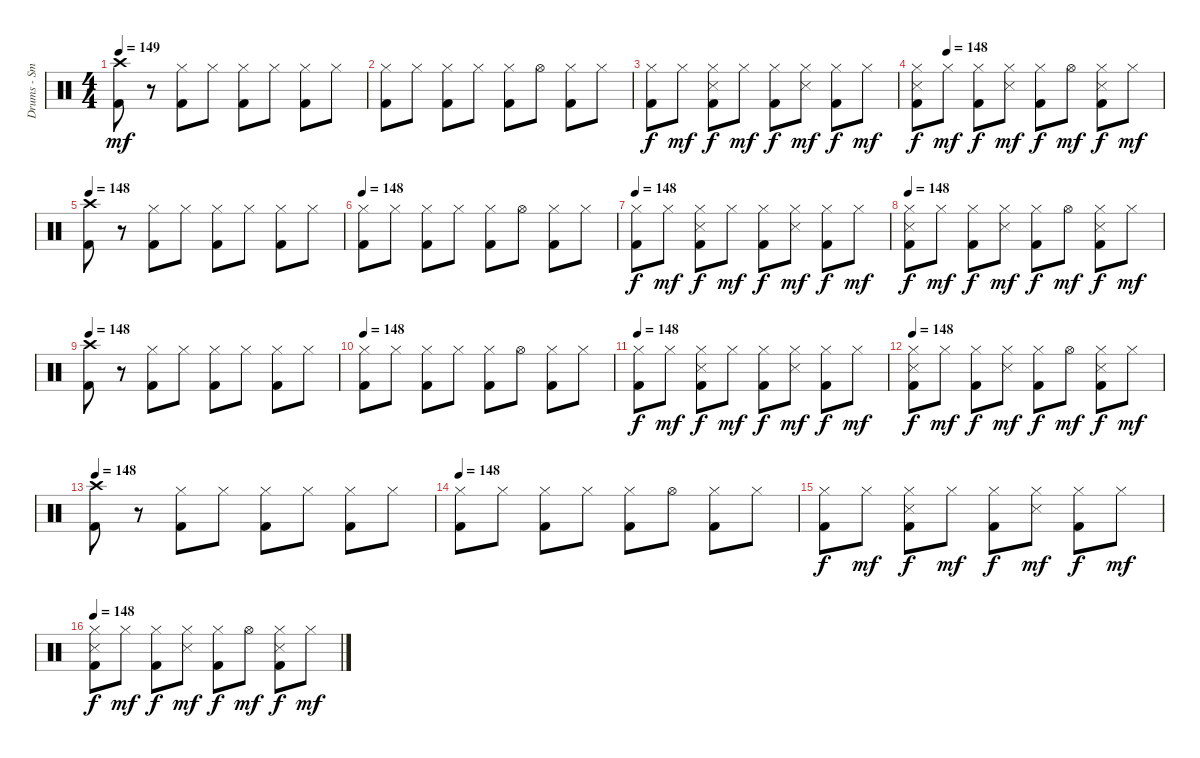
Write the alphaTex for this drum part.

\track ("Drums - Smelly" "Drums - Sm") {instrument percussion}
\staff {score}
\articulation defaults
\ts (4 4)
\tempo 149
\clef neutral
\ks c
("Crash high (hit)" "Kick (hit) 2").8{dy mf} r.8 ("Hi-Hat (closed)" "Kick (hit) 2").8 "Hi-Hat (closed)".8 ("Hi-Hat (closed)" "Kick (hit) 2").8 "Hi-Hat (closed)".8 ("Hi-Hat (closed)" "Kick (hit) 2").8 "Hi-Hat (closed)".8 |
("Kick (hit) 2" "Hi-Hat (closed)").8 "Hi-Hat (closed)".8 ("Hi-Hat (closed)" "Kick (hit) 2").8 "Hi-Hat (closed)".8 ("Kick (hit) 2" "Hi-Hat (closed)").8 "Hi-Hat (open)".8 ("Kick (hit) 2" "Hi-Hat (closed)").8 "Hi-Hat (closed)".8 |
("Kick (hit) 2" "Hi-Hat (closed)").8{dy f} "Hi-Hat (closed)".8{dy mf} ("Snare (side stick) 3" "Kick (hit) 2" "Hi-Hat (closed)").8{dy f} "Hi-Hat (closed)".8{dy mf} ("Hi-Hat (closed)" "Kick (hit) 2").8{dy f} ("Hi-Hat (closed)" "Snare (side stick) 3").8{dy mf} ("Kick (hit) 2" "Hi-Hat (closed)").8{dy f} "Hi-Hat (closed)".8{dy mf} |
\tempo (148 0.125)
("Snare (side stick) 3" "Kick (hit) 2" "Hi-Hat (closed)").8{dy f} "Hi-Hat (closed)".8{dy mf} ("Hi-Hat (closed)" "Kick (hit) 2").8{dy f} ("Hi-Hat (closed)" "Snare (side stick) 3").8{dy mf} ("Kick (hit) 2" "Hi-Hat (closed)").8{dy f} "Hi-Hat (open)".8{dy mf} ("Kick (hit) 2" "Snare (side stick) 3" "Hi-Hat (closed)").8{dy f} "Hi-Hat (closed)".8{dy mf} |
\tempo 148
("Kick (hit) 2" "Crash high (hit)").8 r.8 ("Hi-Hat (closed)" "Kick (hit) 2").8 "Hi-Hat (closed)".8 ("Hi-Hat (closed)" "Kick (hit) 2").8 "Hi-Hat (closed)".8 ("Kick (hit) 2" "Hi-Hat (closed)").8 "Hi-Hat (closed)".8 |
\tempo 148
("Hi-Hat (closed)" "Kick (hit) 2").8 "Hi-Hat (closed)".8 ("Kick (hit) 2" "Hi-Hat (closed)").8 "Hi-Hat (closed)".8 ("Kick (hit) 2" "Hi-Hat (closed)").8 "Hi-Hat (open)".8 ("Hi-Hat (closed)" "Kick (hit) 2").8 "Hi-Hat (closed)".8 |
\tempo 148
("Kick (hit) 2" "Hi-Hat (closed)").8{dy f} "Hi-Hat (closed)".8{dy mf} ("Snare (side stick) 3" "Hi-Hat (closed)" "Kick (hit) 2").8{dy f} "Hi-Hat (closed)".8{dy mf} ("Hi-Hat (closed)" "Kick (hit) 2").8{dy f} ("Snare (side stick) 3" "Hi-Hat (closed)").8{dy mf} ("Hi-Hat (closed)" "Kick (hit) 2").8{dy f} "Hi-Hat (closed)".8{dy mf} |
\tempo 148
("Snare (side stick) 3" "Kick (hit) 2" "Hi-Hat (closed)").8{dy f} "Hi-Hat (closed)".8{dy mf} ("Kick (hit) 2" "Hi-Hat (closed)").8{dy f} ("Snare (side stick) 3" "Hi-Hat (closed)").8{dy mf} ("Kick (hit) 2" "Hi-Hat (closed)").8{dy f} "Hi-Hat (open)".8{dy mf} ("Hi-Hat (closed)" "Kick (hit) 2" "Snare (side stick) 3").8{dy f} "Hi-Hat (closed)".8{dy mf} |
\tempo 148
("Kick (hit) 2" "Crash high (hit)").8 r.8 ("Hi-Hat (closed)" "Kick (hit) 2").8 "Hi-Hat (closed)".8 ("Kick (hit) 2" "Hi-Hat (closed)").8 "Hi-Hat (closed)".8 ("Hi-Hat (closed)" "Kick (hit) 2").8 "Hi-Hat (closed)".8 |
\tempo 148
("Kick (hit) 2" "Hi-Hat (closed)").8 "Hi-Hat (closed)".8 ("Kick (hit) 2" "Hi-Hat (closed)").8 "Hi-Hat (closed)".8 ("Hi-Hat (closed)" "Kick (hit) 2").8 "Hi-Hat (open)".8 ("Hi-Hat (closed)" "Kick (hit) 2").8 "Hi-Hat (closed)".8 |
\tempo 148
("Kick (hit) 2" "Hi-Hat (closed)").8{dy f} "Hi-Hat (closed)".8{dy mf} ("Hi-Hat (closed)" "Kick (hit) 2" "Snare (side stick) 3").8{dy f} "Hi-Hat (closed)".8{dy mf} ("Hi-Hat (closed)" "Kick (hit) 2").8{dy f} ("Hi-Hat (closed)" "Snare (side stick) 3").8{dy mf} ("Hi-Hat (closed)" "Kick (hit) 2").8{dy f} "Hi-Hat (closed)".8{dy mf} |
\tempo 148
("Snare (side stick) 3" "Hi-Hat (closed)" "Kick (hit) 2").8{dy f} "Hi-Hat (closed)".8{dy mf} ("Kick (hit) 2" "Hi-Hat (closed)").8{dy f} ("Hi-Hat (closed)" "Snare (side stick) 3").8{dy mf} ("Hi-Hat (closed)" "Kick (hit) 2").8{dy f} "Hi-Hat (open)".8{dy mf} ("Hi-Hat (closed)" "Kick (hit) 2" "Snare (side stick) 3").8{dy f} "Hi-Hat (closed)".8{dy mf} |
\tempo 148
("Crash high (hit)" "Kick (hit) 2").8 r.8 ("Kick (hit) 2" "Hi-Hat (closed)").8 "Hi-Hat (closed)".8 ("Hi-Hat (closed)" "Kick (hit) 2").8 "Hi-Hat (closed)".8 ("Kick (hit) 2" "Hi-Hat (closed)").8 "Hi-Hat (closed)".8 |
\tempo 148
("Kick (hit) 2" "Hi-Hat (closed)").8 "Hi-Hat (closed)".8 ("Hi-Hat (closed)" "Kick (hit) 2").8 "Hi-Hat (closed)".8 ("Hi-Hat (closed)" "Kick (hit) 2").8 "Hi-Hat (open)".8 ("Hi-Hat (closed)" "Kick (hit) 2").8 "Hi-Hat (closed)".8 |
("Hi-Hat (closed)" "Kick (hit) 2").8{dy f} "Hi-Hat (closed)".8{dy mf} ("Hi-Hat (closed)" "Kick (hit) 2" "Snare (side stick) 3").8{dy f} "Hi-Hat (closed)".8{dy mf} ("Kick (hit) 2" "Hi-Hat (closed)").8{dy f} ("Hi-Hat (closed)" "Snare (side stick) 3").8{dy mf} ("Hi-Hat (closed)" "Kick (hit) 2").8{dy f} "Hi-Hat (closed)".8{dy mf} |
\tempo 148
("Hi-Hat (closed)" "Kick (hit) 2" "Snare (side stick) 3").8{dy f} "Hi-Hat (closed)".8{dy mf} ("Kick (hit) 2" "Hi-Hat (closed)").8{dy f} ("Snare (side stick) 3" "Hi-Hat (closed)").8{dy mf} ("Hi-Hat (closed)" "Kick (hit) 2").8{dy f} "Hi-Hat (open)".8{dy mf} ("Hi-Hat (closed)" "Snare (side stick) 3" "Kick (hit) 2").8{dy f} "Hi-Hat (closed)".8{dy mf}
